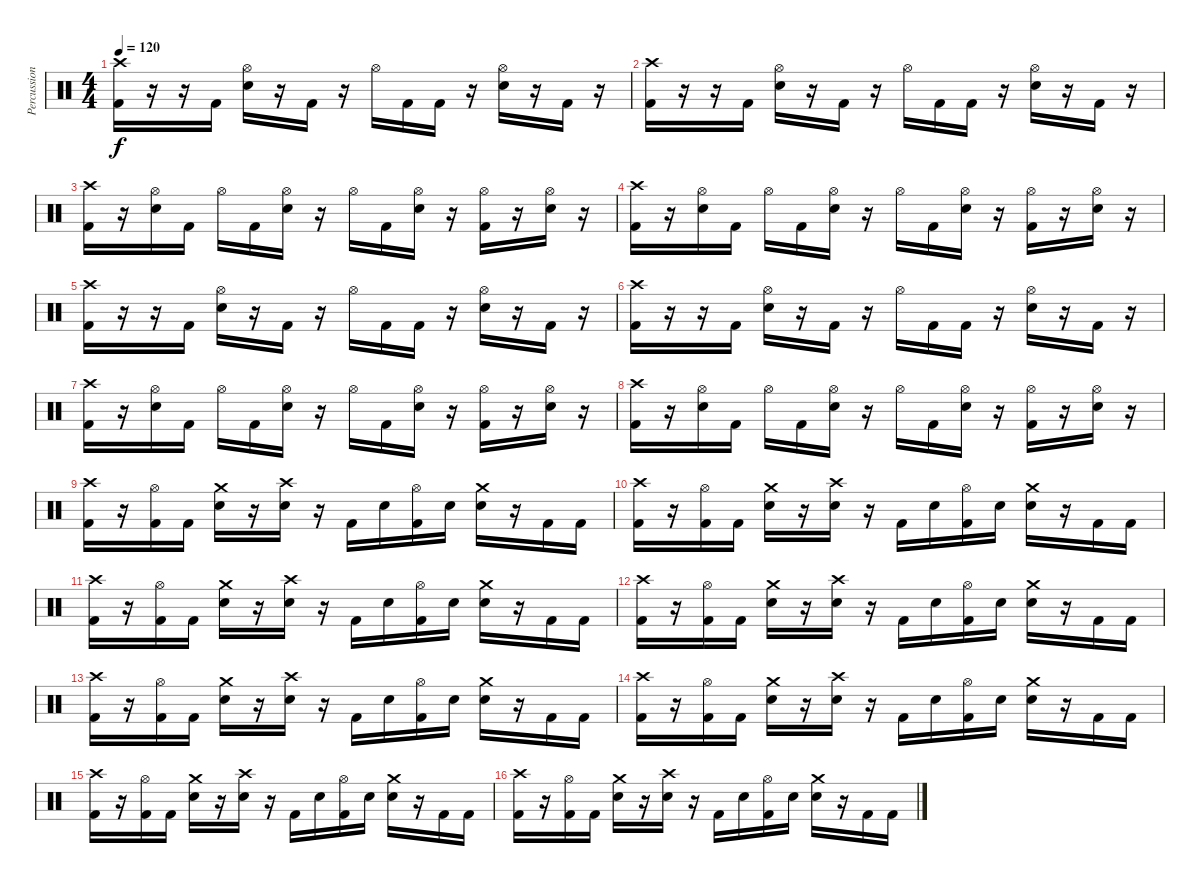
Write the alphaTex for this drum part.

\track ("Percussion" "Percussion") {instrument percussion}
\staff {score}
\articulation defaults
\ts (4 4)
\tempo 120
\clef neutral
\ks c
("Crash high (hit)" "Kick (hit) 2").16{dy f} r.16 r.16 "Kick (hit) 2".16 ("Hi-Hat (open)" "Electric Snare (hit)").16 r.16 "Kick (hit) 2".16 r.16 "Hi-Hat (open)".16 "Kick (hit) 2".16 "Kick (hit) 2".16 r.16 ("Hi-Hat (open)" "Electric Snare (hit)").16 r.16 "Kick (hit) 2".16 r.16 |
("Crash high (hit)" "Kick (hit) 2").16 r.16 r.16 "Kick (hit) 2".16 ("Hi-Hat (open)" "Electric Snare (hit)").16 r.16 "Kick (hit) 2".16 r.16 "Hi-Hat (open)".16 "Kick (hit) 2".16 "Kick (hit) 2".16 r.16 ("Hi-Hat (open)" "Electric Snare (hit)").16 r.16 "Kick (hit) 2".16 r.16 |
("Crash high (hit)" "Kick (hit) 2").16 r.16 ("Hi-Hat (open)" "Electric Snare (hit)").16 "Kick (hit) 2".16 "Hi-Hat (open)".16 "Kick (hit) 2".16 ("Hi-Hat (open)" "Electric Snare (hit)").16 r.16 "Hi-Hat (open)".16 "Kick (hit) 2".16 ("Hi-Hat (open)" "Electric Snare (hit)").16 r.16 ("Hi-Hat (open)" "Kick (hit) 2").16 r.16 ("Hi-Hat (open)" "Electric Snare (hit)").16 r.16 |
("Crash high (hit)" "Kick (hit) 2").16 r.16 ("Hi-Hat (open)" "Electric Snare (hit)").16 "Kick (hit) 2".16 "Hi-Hat (open)".16 "Kick (hit) 2".16 ("Hi-Hat (open)" "Electric Snare (hit)").16 r.16 "Hi-Hat (open)".16 "Kick (hit) 2".16 ("Hi-Hat (open)" "Electric Snare (hit)").16 r.16 ("Hi-Hat (open)" "Kick (hit) 2").16 r.16 ("Hi-Hat (open)" "Electric Snare (hit)").16 r.16 |
("Crash high (hit)" "Kick (hit) 2").16 r.16 r.16 "Kick (hit) 2".16 ("Hi-Hat (open)" "Electric Snare (hit)").16 r.16 "Kick (hit) 2".16 r.16 "Hi-Hat (open)".16 "Kick (hit) 2".16 "Kick (hit) 2".16 r.16 ("Hi-Hat (open)" "Electric Snare (hit)").16 r.16 "Kick (hit) 2".16 r.16 |
("Crash high (hit)" "Kick (hit) 2").16 r.16 r.16 "Kick (hit) 2".16 ("Hi-Hat (open)" "Electric Snare (hit)").16 r.16 "Kick (hit) 2".16 r.16 "Hi-Hat (open)".16 "Kick (hit) 2".16 "Kick (hit) 2".16 r.16 ("Hi-Hat (open)" "Electric Snare (hit)").16 r.16 "Kick (hit) 2".16 r.16 |
("Crash high (hit)" "Kick (hit) 2").16 r.16 ("Hi-Hat (open)" "Electric Snare (hit)").16 "Kick (hit) 2".16 "Hi-Hat (open)".16 "Kick (hit) 2".16 ("Hi-Hat (open)" "Electric Snare (hit)").16 r.16 "Hi-Hat (open)".16 "Kick (hit) 2".16 ("Hi-Hat (open)" "Electric Snare (hit)").16 r.16 ("Hi-Hat (open)" "Kick (hit) 2").16 r.16 ("Hi-Hat (open)" "Electric Snare (hit)").16 r.16 |
("Crash high (hit)" "Kick (hit) 2").16 r.16 ("Hi-Hat (open)" "Electric Snare (hit)").16 "Kick (hit) 2".16 "Hi-Hat (open)".16 "Kick (hit) 2".16 ("Hi-Hat (open)" "Electric Snare (hit)").16 r.16 "Hi-Hat (open)".16 "Kick (hit) 2".16 ("Hi-Hat (open)" "Electric Snare (hit)").16 r.16 ("Hi-Hat (open)" "Kick (hit) 2").16 r.16 ("Hi-Hat (open)" "Electric Snare (hit)").16 r.16 |
("Crash high (hit)" "Kick (hit) 2").16 r.16 ("Hi-Hat (open)" "Kick (hit) 2").16 "Kick (hit) 2".16 ("Crash medium (hit)" "Electric Snare (hit)").16 r.16 ("Crash high (hit)" "Electric Snare (hit)").16 r.16 "Kick (hit) 2".16 "Electric Snare (hit)".16 ("Hi-Hat (open)" "Kick (hit) 2").16 "Electric Snare (hit)".16 ("Crash medium (hit)" "Electric Snare (hit)").16 r.16 "Kick (hit) 2".16 "Kick (hit) 2".16 |
("Crash high (hit)" "Kick (hit) 2").16 r.16 ("Hi-Hat (open)" "Kick (hit) 2").16 "Kick (hit) 2".16 ("Crash medium (hit)" "Electric Snare (hit)").16 r.16 ("Crash high (hit)" "Electric Snare (hit)").16 r.16 "Kick (hit) 2".16 "Electric Snare (hit)".16 ("Hi-Hat (open)" "Kick (hit) 2").16 "Electric Snare (hit)".16 ("Crash medium (hit)" "Electric Snare (hit)").16 r.16 "Kick (hit) 2".16 "Kick (hit) 2".16 |
("Crash high (hit)" "Kick (hit) 2").16 r.16 ("Hi-Hat (open)" "Kick (hit) 2").16 "Kick (hit) 2".16 ("Crash medium (hit)" "Electric Snare (hit)").16 r.16 ("Crash high (hit)" "Electric Snare (hit)").16 r.16 "Kick (hit) 2".16 "Electric Snare (hit)".16 ("Hi-Hat (open)" "Kick (hit) 2").16 "Electric Snare (hit)".16 ("Crash medium (hit)" "Electric Snare (hit)").16 r.16 "Kick (hit) 2".16 "Kick (hit) 2".16 |
("Crash high (hit)" "Kick (hit) 2").16 r.16 ("Hi-Hat (open)" "Kick (hit) 2").16 "Kick (hit) 2".16 ("Crash medium (hit)" "Electric Snare (hit)").16 r.16 ("Crash high (hit)" "Electric Snare (hit)").16 r.16 "Kick (hit) 2".16 "Electric Snare (hit)".16 ("Hi-Hat (open)" "Kick (hit) 2").16 "Electric Snare (hit)".16 ("Crash medium (hit)" "Electric Snare (hit)").16 r.16 "Kick (hit) 2".16 "Kick (hit) 2".16 |
("Crash high (hit)" "Kick (hit) 2").16 r.16 ("Hi-Hat (open)" "Kick (hit) 2").16 "Kick (hit) 2".16 ("Crash medium (hit)" "Electric Snare (hit)").16 r.16 ("Crash high (hit)" "Electric Snare (hit)").16 r.16 "Kick (hit) 2".16 "Electric Snare (hit)".16 ("Hi-Hat (open)" "Kick (hit) 2").16 "Electric Snare (hit)".16 ("Crash medium (hit)" "Electric Snare (hit)").16 r.16 "Kick (hit) 2".16 "Kick (hit) 2".16 |
("Crash high (hit)" "Kick (hit) 2").16 r.16 ("Hi-Hat (open)" "Kick (hit) 2").16 "Kick (hit) 2".16 ("Crash medium (hit)" "Electric Snare (hit)").16 r.16 ("Crash high (hit)" "Electric Snare (hit)").16 r.16 "Kick (hit) 2".16 "Electric Snare (hit)".16 ("Hi-Hat (open)" "Kick (hit) 2").16 "Electric Snare (hit)".16 ("Crash medium (hit)" "Electric Snare (hit)").16 r.16 "Kick (hit) 2".16 "Kick (hit) 2".16 |
("Crash high (hit)" "Kick (hit) 2").16 r.16 ("Hi-Hat (open)" "Kick (hit) 2").16 "Kick (hit) 2".16 ("Crash medium (hit)" "Electric Snare (hit)").16 r.16 ("Crash high (hit)" "Electric Snare (hit)").16 r.16 "Kick (hit) 2".16 "Electric Snare (hit)".16 ("Hi-Hat (open)" "Kick (hit) 2").16 "Electric Snare (hit)".16 ("Crash medium (hit)" "Electric Snare (hit)").16 r.16 "Kick (hit) 2".16 "Kick (hit) 2".16 |
("Crash high (hit)" "Kick (hit) 2").16 r.16 ("Hi-Hat (open)" "Kick (hit) 2").16 "Kick (hit) 2".16 ("Crash medium (hit)" "Electric Snare (hit)").16 r.16 ("Crash high (hit)" "Electric Snare (hit)").16 r.16 "Kick (hit) 2".16 "Electric Snare (hit)".16 ("Hi-Hat (open)" "Kick (hit) 2").16 "Electric Snare (hit)".16 ("Crash medium (hit)" "Electric Snare (hit)").16 r.16 "Kick (hit) 2".16 "Kick (hit) 2".16
